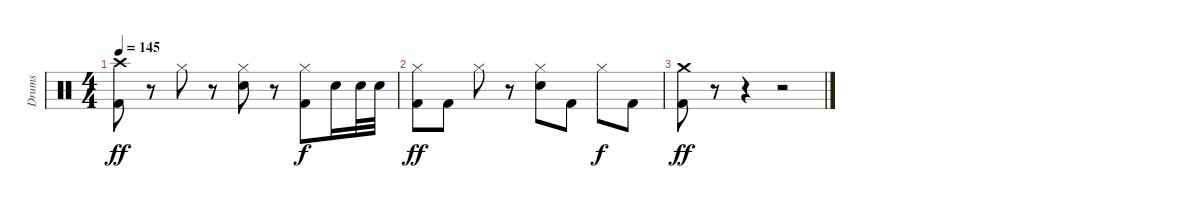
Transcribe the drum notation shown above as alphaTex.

\track ("Drums" "Drums") {instrument percussion}
\staff {score}
\articulation defaults
\ts (4 4)
\tempo 145
\clef neutral
\ks c
("Crash high (hit)" "Kick (hit) 2").8{dy ff} r.8 "Hi-Hat (closed)".8 r.8 ("Hi-Hat (closed)" "Snare (hit) 2").8 r.8 ("Hi-Hat (closed)" "Kick (hit) 2").8{dy f} "Snare (hit) 2".16 "Snare (hit) 2".32 "Snare (hit) 2".32 |
("Hi-Hat (closed)" "Kick (hit) 2").8{dy ff} "Kick (hit) 2".8 "Hi-Hat (closed)".8 r.8 ("Hi-Hat (closed)" "Snare (hit) 2").8 "Kick (hit) 2".8 "Hi-Hat (closed)".8{dy f} "Kick (hit) 2".8 |
("Crash medium (hit)" "Kick (hit) 2").8{dy ff} r.8 r.4 r.2
